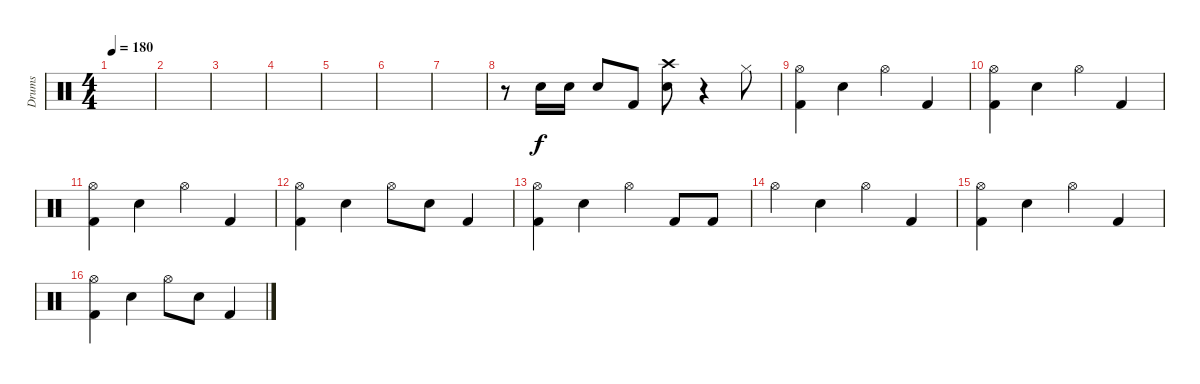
\track ("Drums" "Drums") {instrument percussion}
\staff {score}
\articulation defaults
\ts (4 4)
\tempo 180
\clef neutral
\ks c
|
|
|
|
|
|
|
r.8 "Snare (hit) 2".16 "Snare (hit) 2".16 "Snare (hit) 2".8 "Kick (hit) 2".8 ("Crash high (hit)" "Snare (hit) 2").8 r.4 "Hi-Hat (closed)".8 |
("Hi-Hat (open)" "Kick (hit) 2").4 "Snare (hit) 2".4 "Hi-Hat (open)".4 "Kick (hit) 2".4 |
("Hi-Hat (open)" "Kick (hit) 2").4 "Snare (hit) 2".4 "Hi-Hat (open)".4 "Kick (hit) 2".4 |
("Hi-Hat (open)" "Kick (hit) 2").4 "Snare (hit) 2".4 "Hi-Hat (open)".4 "Kick (hit) 2".4 |
("Hi-Hat (open)" "Kick (hit) 2").4 "Snare (hit) 2".4 "Hi-Hat (open)".8 "Snare (hit) 2".8 "Kick (hit) 2".4 |
("Hi-Hat (open)" "Kick (hit) 2").4 "Snare (hit) 2".4 "Hi-Hat (open)".4 "Kick (hit) 2".8 "Kick (hit) 2".8 |
"Hi-Hat (open)".4 "Snare (hit) 2".4 "Hi-Hat (open)".4 "Kick (hit) 2".4 |
("Hi-Hat (open)" "Kick (hit) 2").4 "Snare (hit) 2".4 "Hi-Hat (open)".4 "Kick (hit) 2".4 |
("Hi-Hat (open)" "Kick (hit) 2").4 "Snare (hit) 2".4 "Hi-Hat (open)".8 "Snare (hit) 2".8 "Kick (hit) 2".4
